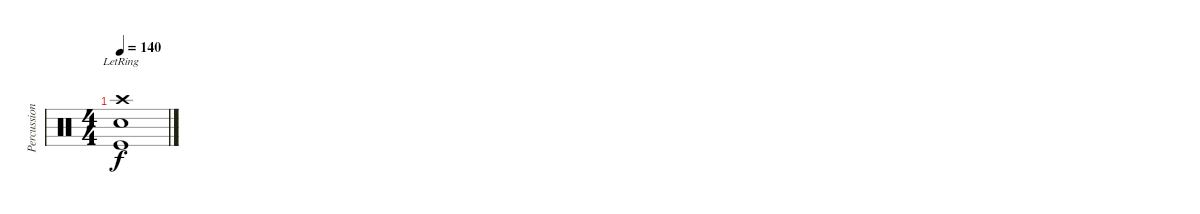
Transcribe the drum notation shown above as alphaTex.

\track ("Percussion" "Percussion") {instrument percussion}
\staff {score}
\articulation defaults
\ts (4 4)
\tempo 140
\clef neutral
\ks c
("Snare (hit) 2" "Crash high (hit)"{lr} "Kick (hit)").1{dy f}
